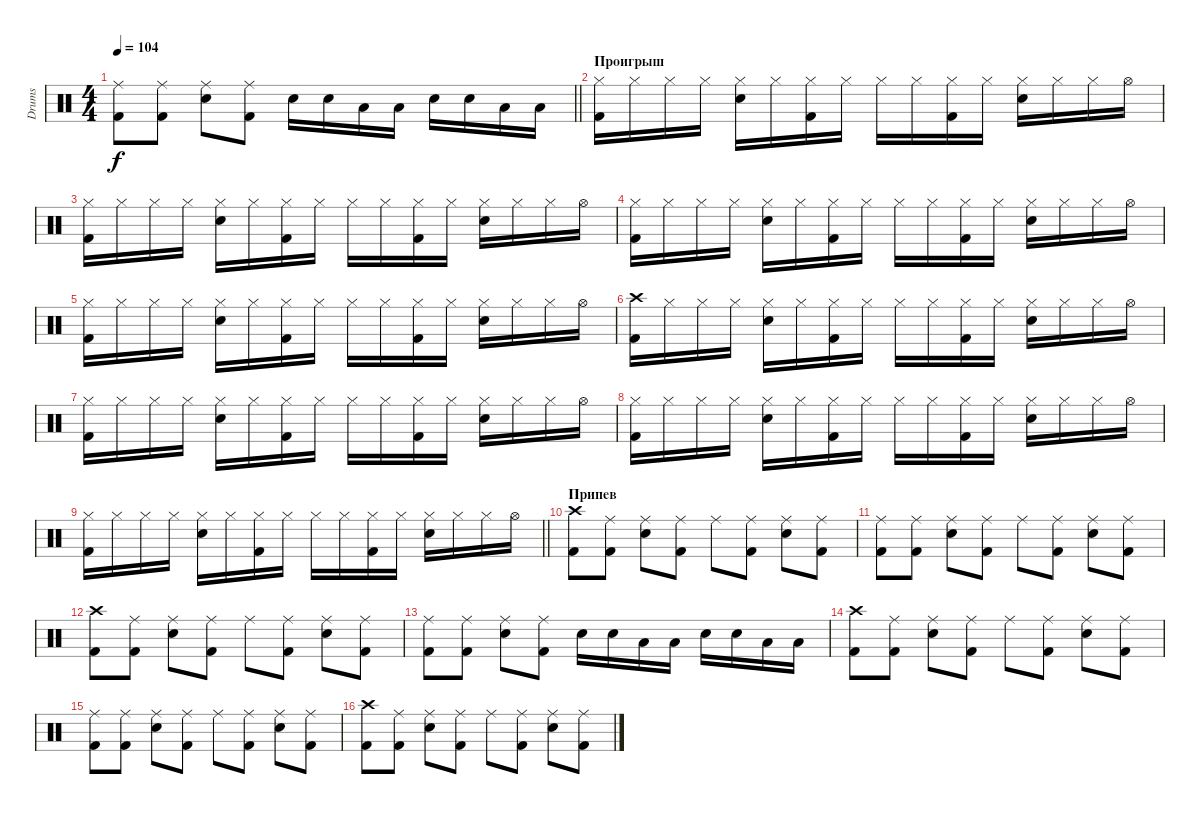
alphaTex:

\track ("Drums" "Drums") {instrument percussion}
\staff {score}
\articulation defaults
\ts (4 4)
\tempo 104
\clef neutral
\barLineRight lightlight
\ks c
("Ride (middle)" "Kick (hit) 2").8{dy f} ("Ride (middle)" "Kick (hit) 2").8 ("Ride (middle)" "Snare (hit) 2").8 ("Ride (middle)" "Kick (hit) 2").8 "Snare (hit) 2".16 "Snare (hit) 2".16 "Low Tom (hit)".16 "Low Tom (hit)".16 "Snare (hit) 2".16 "Snare (hit) 2".16 "Low Tom (hit)".16 "Low Tom (hit)".16 |
\section ("" "Проигрыш")
("Hi-Hat (closed)" "Kick (hit) 2").16{volume 3} "Hi-Hat (closed)".16 "Hi-Hat (closed)".16 "Hi-Hat (closed)".16 ("Hi-Hat (closed)" "Snare (hit) 2").16 "Hi-Hat (closed)".16 ("Hi-Hat (closed)" "Kick (hit) 2").16 "Hi-Hat (closed)".16 "Hi-Hat (closed)".16 "Hi-Hat (closed)".16 ("Hi-Hat (closed)" "Kick (hit) 2").16 "Hi-Hat (closed)".16 ("Hi-Hat (closed)" "Snare (hit) 2").16 "Hi-Hat (closed)".16 "Hi-Hat (closed)".16 "Hi-Hat (open)".16 |
("Hi-Hat (closed)" "Kick (hit) 2").16 "Hi-Hat (closed)".16 "Hi-Hat (closed)".16 "Hi-Hat (closed)".16 ("Hi-Hat (closed)" "Snare (hit) 2").16 "Hi-Hat (closed)".16 ("Hi-Hat (closed)" "Kick (hit) 2").16 "Hi-Hat (closed)".16 "Hi-Hat (closed)".16 "Hi-Hat (closed)".16 ("Hi-Hat (closed)" "Kick (hit) 2").16 "Hi-Hat (closed)".16 ("Hi-Hat (closed)" "Snare (hit) 2").16 "Hi-Hat (closed)".16 "Hi-Hat (closed)".16 "Hi-Hat (open)".16 |
("Hi-Hat (closed)" "Kick (hit) 2").16 "Hi-Hat (closed)".16 "Hi-Hat (closed)".16 "Hi-Hat (closed)".16 ("Hi-Hat (closed)" "Snare (hit) 2").16 "Hi-Hat (closed)".16 ("Hi-Hat (closed)" "Kick (hit) 2").16 "Hi-Hat (closed)".16 "Hi-Hat (closed)".16 "Hi-Hat (closed)".16 ("Hi-Hat (closed)" "Kick (hit) 2").16 "Hi-Hat (closed)".16 ("Hi-Hat (closed)" "Snare (hit) 2").16 "Hi-Hat (closed)".16 "Hi-Hat (closed)".16 "Hi-Hat (open)".16 |
("Hi-Hat (closed)" "Kick (hit) 2").16 "Hi-Hat (closed)".16 "Hi-Hat (closed)".16 "Hi-Hat (closed)".16 ("Hi-Hat (closed)" "Snare (hit) 2").16 "Hi-Hat (closed)".16 ("Hi-Hat (closed)" "Kick (hit) 2").16 "Hi-Hat (closed)".16 "Hi-Hat (closed)".16 "Hi-Hat (closed)".16 ("Hi-Hat (closed)" "Kick (hit) 2").16 "Hi-Hat (closed)".16 ("Hi-Hat (closed)" "Snare (hit) 2").16 "Hi-Hat (closed)".16 "Hi-Hat (closed)".16 "Hi-Hat (open)".16 |
("Crash high (hit)" "Kick (hit) 2").16{volume 13} "Hi-Hat (closed)".16 "Hi-Hat (closed)".16 "Hi-Hat (closed)".16 ("Hi-Hat (closed)" "Snare (hit) 2").16 "Hi-Hat (closed)".16 ("Hi-Hat (closed)" "Kick (hit) 2").16 "Hi-Hat (closed)".16 "Hi-Hat (closed)".16 "Hi-Hat (closed)".16 ("Hi-Hat (closed)" "Kick (hit) 2").16 "Hi-Hat (closed)".16 ("Hi-Hat (closed)" "Snare (hit) 2").16 "Hi-Hat (closed)".16 "Hi-Hat (closed)".16 "Hi-Hat (open)".16 |
("Hi-Hat (closed)" "Kick (hit) 2").16 "Hi-Hat (closed)".16 "Hi-Hat (closed)".16 "Hi-Hat (closed)".16 ("Hi-Hat (closed)" "Snare (hit) 2").16 "Hi-Hat (closed)".16 ("Hi-Hat (closed)" "Kick (hit) 2").16 "Hi-Hat (closed)".16 "Hi-Hat (closed)".16 "Hi-Hat (closed)".16 ("Hi-Hat (closed)" "Kick (hit) 2").16 "Hi-Hat (closed)".16 ("Hi-Hat (closed)" "Snare (hit) 2").16 "Hi-Hat (closed)".16 "Hi-Hat (closed)".16 "Hi-Hat (open)".16 |
("Hi-Hat (closed)" "Kick (hit) 2").16 "Hi-Hat (closed)".16 "Hi-Hat (closed)".16 "Hi-Hat (closed)".16 ("Hi-Hat (closed)" "Snare (hit) 2").16 "Hi-Hat (closed)".16 ("Hi-Hat (closed)" "Kick (hit) 2").16 "Hi-Hat (closed)".16 "Hi-Hat (closed)".16 "Hi-Hat (closed)".16 ("Hi-Hat (closed)" "Kick (hit) 2").16 "Hi-Hat (closed)".16 ("Hi-Hat (closed)" "Snare (hit) 2").16 "Hi-Hat (closed)".16 "Hi-Hat (closed)".16 "Hi-Hat (open)".16 |
\barLineRight lightlight
("Hi-Hat (closed)" "Kick (hit) 2").16{volume 3} "Hi-Hat (closed)".16 "Hi-Hat (closed)".16 "Hi-Hat (closed)".16 ("Hi-Hat (closed)" "Snare (hit) 2").16 "Hi-Hat (closed)".16 ("Hi-Hat (closed)" "Kick (hit) 2").16 "Hi-Hat (closed)".16 "Hi-Hat (closed)".16 "Hi-Hat (closed)".16 ("Hi-Hat (closed)" "Kick (hit) 2").16 "Hi-Hat (closed)".16 ("Hi-Hat (closed)" "Snare (hit) 2").16 "Hi-Hat (closed)".16 "Hi-Hat (closed)".16 "Hi-Hat (open)".16 |
\section ("" "Припев")
("Crash high (hit)" "Kick (hit) 2").8{volume 13} ("Ride (middle)" "Kick (hit) 2").8 ("Ride (middle)" "Snare (hit) 2").8 ("Ride (middle)" "Kick (hit) 2").8 "Ride (middle)".8 ("Ride (middle)" "Kick (hit) 2").8 ("Ride (middle)" "Snare (hit) 2").8 ("Ride (middle)" "Kick (hit) 2").8 |
("Ride (middle)" "Kick (hit) 2").8 ("Ride (middle)" "Kick (hit) 2").8 ("Ride (middle)" "Snare (hit) 2").8 ("Ride (middle)" "Kick (hit) 2").8 "Ride (middle)".8 ("Ride (middle)" "Kick (hit) 2").8 ("Ride (middle)" "Snare (hit) 2").8 ("Ride (middle)" "Kick (hit) 2").8 |
("Crash high (hit)" "Kick (hit) 2").8 ("Ride (middle)" "Kick (hit) 2").8 ("Ride (middle)" "Snare (hit) 2").8 ("Ride (middle)" "Kick (hit) 2").8 "Ride (middle)".8 ("Ride (middle)" "Kick (hit) 2").8 ("Ride (middle)" "Snare (hit) 2").8 ("Ride (middle)" "Kick (hit) 2").8 |
("Ride (middle)" "Kick (hit) 2").8 ("Ride (middle)" "Kick (hit) 2").8 ("Ride (middle)" "Snare (hit) 2").8 ("Ride (middle)" "Kick (hit) 2").8 "Snare (hit) 2".16 "Snare (hit) 2".16 "Low Tom (hit)".16 "Low Tom (hit)".16 "Snare (hit) 2".16 "Snare (hit) 2".16 "Low Tom (hit)".16 "Low Tom (hit)".16 |
("Crash high (hit)" "Kick (hit) 2").8 ("Ride (middle)" "Kick (hit) 2").8 ("Ride (middle)" "Snare (hit) 2").8 ("Ride (middle)" "Kick (hit) 2").8 "Ride (middle)".8 ("Ride (middle)" "Kick (hit) 2").8 ("Ride (middle)" "Snare (hit) 2").8 ("Ride (middle)" "Kick (hit) 2").8 |
("Ride (middle)" "Kick (hit) 2").8 ("Ride (middle)" "Kick (hit) 2").8 ("Ride (middle)" "Snare (hit) 2").8 ("Ride (middle)" "Kick (hit) 2").8 "Ride (middle)".8 ("Ride (middle)" "Kick (hit) 2").8 ("Ride (middle)" "Snare (hit) 2").8 ("Ride (middle)" "Kick (hit) 2").8 |
("Crash high (hit)" "Kick (hit) 2").8 ("Ride (middle)" "Kick (hit) 2").8 ("Ride (middle)" "Snare (hit) 2").8 ("Ride (middle)" "Kick (hit) 2").8 "Ride (middle)".8 ("Ride (middle)" "Kick (hit) 2").8 ("Ride (middle)" "Snare (hit) 2").8 ("Ride (middle)" "Kick (hit) 2").8
